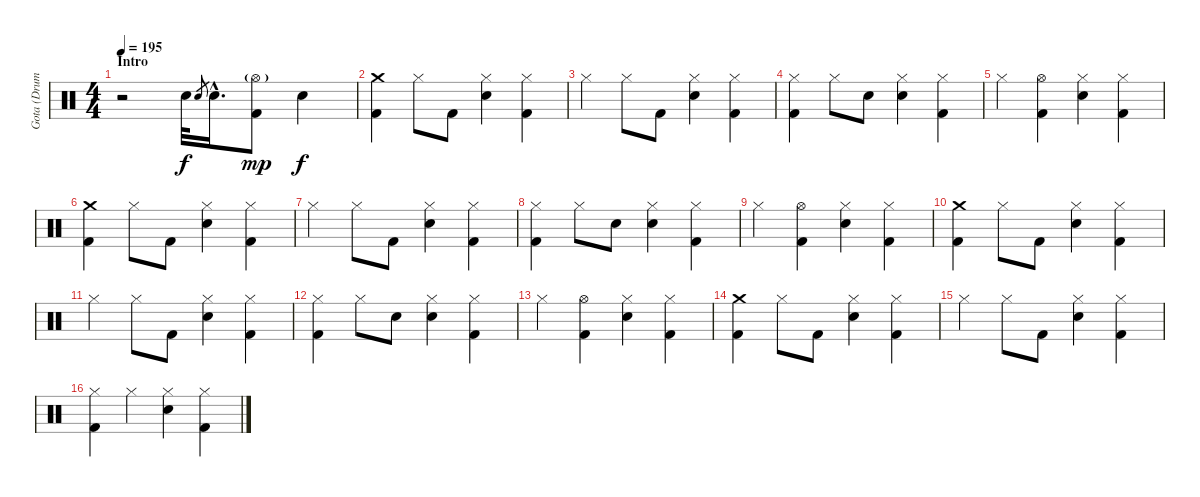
\track ("Gota (Drums)" "Gota (Drum") {instrument percussion}
\staff {score}
\articulation defaults
\ts (4 4)
\section ("" "Intro")
\tempo 195
\clef neutral
\ks c
r.2{dy f} "Electric Snare (hit)".32 "Electric Snare (hit)".8{gr} "Electric Snare (hit)"{hac}.16{d} ("Hi-Hat (open)"{g} "Kick (hit) 2").8{dy mp} "Electric Snare (hit)".4{dy f} |
("Crash medium (hit)" "Kick (hit) 2").4 "Hi-Hat (closed)".8 "Kick (hit) 2".8 ("Hi-Hat (closed)" "Electric Snare (hit)").4 ("Hi-Hat (closed)" "Kick (hit) 2").4 |
"Hi-Hat (closed)".4 "Hi-Hat (closed)".8 "Kick (hit) 2".8 ("Hi-Hat (closed)" "Electric Snare (hit)").4 ("Hi-Hat (closed)" "Kick (hit) 2").4 |
("Hi-Hat (closed)" "Kick (hit) 2").4 "Hi-Hat (closed)".8 "Electric Snare (hit)".8 ("Hi-Hat (closed)" "Electric Snare (hit)").4 ("Hi-Hat (closed)" "Kick (hit) 2").4 |
"Hi-Hat (closed)".4 ("Hi-Hat (open)" "Kick (hit) 2").4 ("Hi-Hat (closed)" "Electric Snare (hit)").4 ("Hi-Hat (closed)" "Kick (hit) 2").4 |
("Crash medium (hit)" "Kick (hit) 2").4 "Hi-Hat (closed)".8 "Kick (hit) 2".8 ("Hi-Hat (closed)" "Electric Snare (hit)").4 ("Hi-Hat (closed)" "Kick (hit) 2").4 |
"Hi-Hat (closed)".4 "Hi-Hat (closed)".8 "Kick (hit) 2".8 ("Hi-Hat (closed)" "Electric Snare (hit)").4 ("Hi-Hat (closed)" "Kick (hit) 2").4 |
("Hi-Hat (closed)" "Kick (hit) 2").4 "Hi-Hat (closed)".8 "Electric Snare (hit)".8 ("Hi-Hat (closed)" "Electric Snare (hit)").4 ("Hi-Hat (closed)" "Kick (hit) 2").4 |
"Hi-Hat (closed)".4 ("Hi-Hat (open)" "Kick (hit) 2").4 ("Hi-Hat (closed)" "Electric Snare (hit)").4 ("Hi-Hat (closed)" "Kick (hit) 2").4 |
("Crash medium (hit)" "Kick (hit) 2").4 "Hi-Hat (closed)".8 "Kick (hit) 2".8 ("Hi-Hat (closed)" "Electric Snare (hit)").4 ("Hi-Hat (closed)" "Kick (hit) 2").4 |
"Hi-Hat (closed)".4 "Hi-Hat (closed)".8 "Kick (hit) 2".8 ("Hi-Hat (closed)" "Electric Snare (hit)").4 ("Hi-Hat (closed)" "Kick (hit) 2").4 |
("Hi-Hat (closed)" "Kick (hit) 2").4 "Hi-Hat (closed)".8 "Electric Snare (hit)".8 ("Hi-Hat (closed)" "Electric Snare (hit)").4 ("Hi-Hat (closed)" "Kick (hit) 2").4 |
"Hi-Hat (closed)".4 ("Hi-Hat (open)" "Kick (hit) 2").4 ("Hi-Hat (closed)" "Electric Snare (hit)").4 ("Hi-Hat (closed)" "Kick (hit) 2").4 |
("Crash medium (hit)" "Kick (hit) 2").4 "Hi-Hat (closed)".8 "Kick (hit) 2".8 ("Hi-Hat (closed)" "Electric Snare (hit)").4 ("Hi-Hat (closed)" "Kick (hit) 2").4 |
"Hi-Hat (closed)".4 "Hi-Hat (closed)".8 "Kick (hit) 2".8 ("Hi-Hat (closed)" "Electric Snare (hit)").4 ("Hi-Hat (closed)" "Kick (hit) 2").4 |
("Hi-Hat (closed)" "Kick (hit) 2").4 "Hi-Hat (closed)".4 ("Hi-Hat (closed)" "Electric Snare (hit)").4 ("Hi-Hat (closed)" "Kick (hit) 2").4
